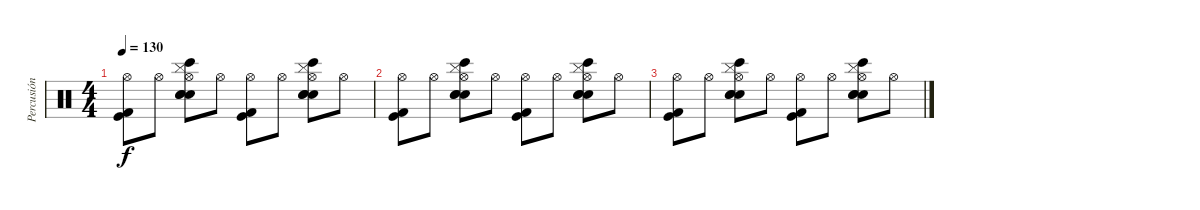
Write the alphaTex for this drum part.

\track ("Percusión" "Percusión") {instrument percussion}
\staff {score}
\articulation defaults
\ts (4 4)
\tempo 130
\clef neutral
\ks c
("Hi-Hat (open)" "Kick (hit)" "Kick (hit) 2").8{dy f} "Hi-Hat (open)".8 ("Hi-Hat (open)" "Hand Clap (hit)" "Cymbal (hit)" "Electric Snare (hit)" "Bongo High (hit)" "Snare (hit) 2").8 "Hi-Hat (open)".8 ("Hi-Hat (open)" "Kick (hit)" "Kick (hit) 2").8 "Hi-Hat (open)".8 ("Hi-Hat (open)" "Hand Clap (hit)" "Cymbal (hit)" "Electric Snare (hit)" "Bongo High (hit)" "Snare (hit) 2").8 "Hi-Hat (open)".8 |
("Hi-Hat (open)" "Kick (hit)" "Kick (hit) 2").8 "Hi-Hat (open)".8 ("Hi-Hat (open)" "Hand Clap (hit)" "Cymbal (hit)" "Electric Snare (hit)" "Bongo High (hit)" "Snare (hit) 2").8 "Hi-Hat (open)".8 ("Hi-Hat (open)" "Kick (hit)" "Kick (hit) 2").8 "Hi-Hat (open)".8 ("Hi-Hat (open)" "Hand Clap (hit)" "Cymbal (hit)" "Electric Snare (hit)" "Bongo High (hit)" "Snare (hit) 2").8 "Hi-Hat (open)".8 |
("Hi-Hat (open)" "Kick (hit)" "Kick (hit) 2").8 "Hi-Hat (open)".8 ("Hi-Hat (open)" "Hand Clap (hit)" "Cymbal (hit)" "Electric Snare (hit)" "Bongo High (hit)" "Snare (hit) 2").8 "Hi-Hat (open)".8 ("Hi-Hat (open)" "Kick (hit)" "Kick (hit) 2").8 "Hi-Hat (open)".8 ("Hi-Hat (open)" "Hand Clap (hit)" "Cymbal (hit)" "Electric Snare (hit)" "Bongo High (hit)" "Snare (hit) 2").8 "Hi-Hat (open)".8
